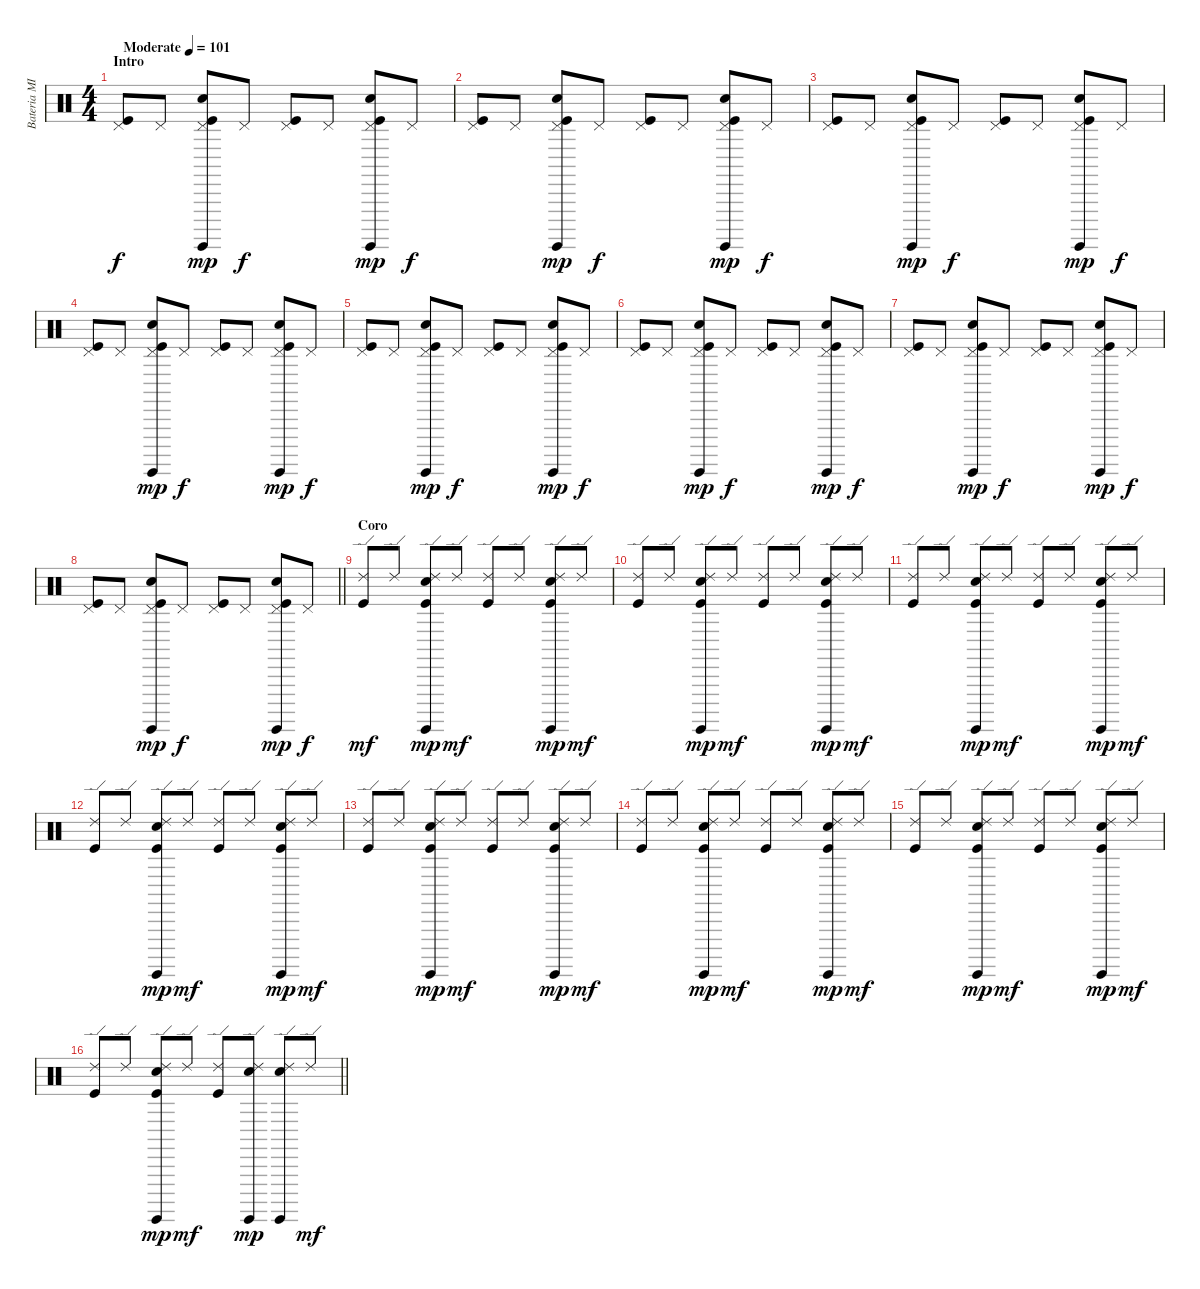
\track ("Bateria MIDI" "Bateria MI") {instrument percussion}
\staff {score}
\articulation defaults
\ts (4 4)
\section ("" "Intro")
\tempo (101 "Moderate")
\clef neutral
\ks c
("Pedal Hi-Hat (hit)" "Kick (hit)").8{dy f} "Pedal Hi-Hat (hit)".8 ("Pedal Hi-Hat (hit)" "Surdo (hit)" "Electric Snare (hit)" "Kick (hit)").8{dy mp} "Pedal Hi-Hat (hit)".8{dy f} ("Pedal Hi-Hat (hit)" "Kick (hit)").8 "Pedal Hi-Hat (hit)".8 ("Pedal Hi-Hat (hit)" "Surdo (hit)" "Electric Snare (hit)" "Kick (hit)").8{dy mp} "Pedal Hi-Hat (hit)".8{dy f} |
("Pedal Hi-Hat (hit)" "Kick (hit)").8 "Pedal Hi-Hat (hit)".8 ("Pedal Hi-Hat (hit)" "Surdo (hit)" "Electric Snare (hit)" "Kick (hit)").8{dy mp} "Pedal Hi-Hat (hit)".8{dy f} ("Pedal Hi-Hat (hit)" "Kick (hit)").8 "Pedal Hi-Hat (hit)".8 ("Pedal Hi-Hat (hit)" "Surdo (hit)" "Electric Snare (hit)" "Kick (hit)").8{dy mp} "Pedal Hi-Hat (hit)".8{dy f} |
("Pedal Hi-Hat (hit)" "Kick (hit)").8 "Pedal Hi-Hat (hit)".8 ("Pedal Hi-Hat (hit)" "Surdo (hit)" "Electric Snare (hit)" "Kick (hit)").8{dy mp} "Pedal Hi-Hat (hit)".8{dy f} ("Pedal Hi-Hat (hit)" "Kick (hit)").8 "Pedal Hi-Hat (hit)".8 ("Pedal Hi-Hat (hit)" "Surdo (hit)" "Electric Snare (hit)" "Kick (hit)").8{dy mp} "Pedal Hi-Hat (hit)".8{dy f} |
("Pedal Hi-Hat (hit)" "Kick (hit)").8 "Pedal Hi-Hat (hit)".8 ("Pedal Hi-Hat (hit)" "Surdo (hit)" "Electric Snare (hit)" "Kick (hit)").8{dy mp} "Pedal Hi-Hat (hit)".8{dy f} ("Pedal Hi-Hat (hit)" "Kick (hit)").8 "Pedal Hi-Hat (hit)".8 ("Pedal Hi-Hat (hit)" "Surdo (hit)" "Electric Snare (hit)" "Kick (hit)").8{dy mp} "Pedal Hi-Hat (hit)".8{dy f} |
("Pedal Hi-Hat (hit)" "Kick (hit)").8 "Pedal Hi-Hat (hit)".8 ("Pedal Hi-Hat (hit)" "Surdo (hit)" "Electric Snare (hit)" "Kick (hit)").8{dy mp} "Pedal Hi-Hat (hit)".8{dy f} ("Pedal Hi-Hat (hit)" "Kick (hit)").8 "Pedal Hi-Hat (hit)".8 ("Pedal Hi-Hat (hit)" "Surdo (hit)" "Electric Snare (hit)" "Kick (hit)").8{dy mp} "Pedal Hi-Hat (hit)".8{dy f} |
("Pedal Hi-Hat (hit)" "Kick (hit)").8 "Pedal Hi-Hat (hit)".8 ("Pedal Hi-Hat (hit)" "Surdo (hit)" "Electric Snare (hit)" "Kick (hit)").8{dy mp} "Pedal Hi-Hat (hit)".8{dy f} ("Pedal Hi-Hat (hit)" "Kick (hit)").8 "Pedal Hi-Hat (hit)".8 ("Pedal Hi-Hat (hit)" "Surdo (hit)" "Electric Snare (hit)" "Kick (hit)").8{dy mp} "Pedal Hi-Hat (hit)".8{dy f} |
("Pedal Hi-Hat (hit)" "Kick (hit)").8 "Pedal Hi-Hat (hit)".8 ("Pedal Hi-Hat (hit)" "Surdo (hit)" "Electric Snare (hit)" "Kick (hit)").8{dy mp} "Pedal Hi-Hat (hit)".8{dy f} ("Pedal Hi-Hat (hit)" "Kick (hit)").8 "Pedal Hi-Hat (hit)".8 ("Pedal Hi-Hat (hit)" "Surdo (hit)" "Electric Snare (hit)" "Kick (hit)").8{dy mp} "Pedal Hi-Hat (hit)".8{dy f} |
\barLineRight lightlight
("Pedal Hi-Hat (hit)" "Kick (hit)").8 "Pedal Hi-Hat (hit)".8 ("Pedal Hi-Hat (hit)" "Surdo (hit)" "Electric Snare (hit)" "Kick (hit)").8{dy mp} "Pedal Hi-Hat (hit)".8{dy f} ("Pedal Hi-Hat (hit)" "Kick (hit)").8 "Pedal Hi-Hat (hit)".8 ("Pedal Hi-Hat (hit)" "Surdo (hit)" "Electric Snare (hit)" "Kick (hit)").8{dy mp} "Pedal Hi-Hat (hit)".8{dy f} |
\section ("" "Coro")
("Ride (edge) 2" "Kick (hit)").8{dy mf} "Ride (edge) 2".8 ("Ride (edge) 2" "Surdo (hit)" "Electric Snare (hit)" "Kick (hit)").8{dy mp} "Ride (edge) 2".8{dy mf} ("Ride (edge) 2" "Kick (hit)").8 "Ride (edge) 2".8 ("Ride (edge) 2" "Surdo (hit)" "Electric Snare (hit)" "Kick (hit)").8{dy mp} "Ride (edge) 2".8{dy mf} |
("Ride (edge) 2" "Kick (hit)").8 "Ride (edge) 2".8 ("Ride (edge) 2" "Surdo (hit)" "Electric Snare (hit)" "Kick (hit)").8{dy mp} "Ride (edge) 2".8{dy mf} ("Ride (edge) 2" "Kick (hit)").8 "Ride (edge) 2".8 ("Ride (edge) 2" "Surdo (hit)" "Electric Snare (hit)" "Kick (hit)").8{dy mp} "Ride (edge) 2".8{dy mf} |
("Ride (edge) 2" "Kick (hit)").8 "Ride (edge) 2".8 ("Ride (edge) 2" "Surdo (hit)" "Electric Snare (hit)" "Kick (hit)").8{dy mp} "Ride (edge) 2".8{dy mf} ("Ride (edge) 2" "Kick (hit)").8 "Ride (edge) 2".8 ("Ride (edge) 2" "Surdo (hit)" "Electric Snare (hit)" "Kick (hit)").8{dy mp} "Ride (edge) 2".8{dy mf} |
("Ride (edge) 2" "Kick (hit)").8 "Ride (edge) 2".8 ("Ride (edge) 2" "Surdo (hit)" "Electric Snare (hit)" "Kick (hit)").8{dy mp} "Ride (edge) 2".8{dy mf} ("Ride (edge) 2" "Kick (hit)").8 "Ride (edge) 2".8 ("Ride (edge) 2" "Surdo (hit)" "Electric Snare (hit)" "Kick (hit)").8{dy mp} "Ride (edge) 2".8{dy mf} |
("Ride (edge) 2" "Kick (hit)").8 "Ride (edge) 2".8 ("Ride (edge) 2" "Surdo (hit)" "Electric Snare (hit)" "Kick (hit)").8{dy mp} "Ride (edge) 2".8{dy mf} ("Ride (edge) 2" "Kick (hit)").8 "Ride (edge) 2".8 ("Ride (edge) 2" "Surdo (hit)" "Electric Snare (hit)" "Kick (hit)").8{dy mp} "Ride (edge) 2".8{dy mf} |
("Ride (edge) 2" "Kick (hit)").8 "Ride (edge) 2".8 ("Ride (edge) 2" "Surdo (hit)" "Electric Snare (hit)" "Kick (hit)").8{dy mp} "Ride (edge) 2".8{dy mf} ("Ride (edge) 2" "Kick (hit)").8 "Ride (edge) 2".8 ("Ride (edge) 2" "Surdo (hit)" "Electric Snare (hit)" "Kick (hit)").8{dy mp} "Ride (edge) 2".8{dy mf} |
("Ride (edge) 2" "Kick (hit)").8 "Ride (edge) 2".8 ("Ride (edge) 2" "Surdo (hit)" "Electric Snare (hit)" "Kick (hit)").8{dy mp} "Ride (edge) 2".8{dy mf} ("Ride (edge) 2" "Kick (hit)").8 "Ride (edge) 2".8 ("Ride (edge) 2" "Surdo (hit)" "Electric Snare (hit)" "Kick (hit)").8{dy mp} "Ride (edge) 2".8{dy mf} |
\barLineRight lightlight
("Ride (edge) 2" "Kick (hit)").8 "Ride (edge) 2".8 ("Ride (edge) 2" "Surdo (hit)" "Electric Snare (hit)" "Kick (hit)").8{dy mp} "Ride (edge) 2".8{dy mf} ("Ride (edge) 2" "Kick (hit)").8 ("Ride (edge) 2" "Surdo (hit)" "Electric Snare (hit)").8{dy mp} ("Ride (edge) 2" "Surdo (hit)" "Electric Snare (hit)").8 "Ride (edge) 2".8{dy mf}
